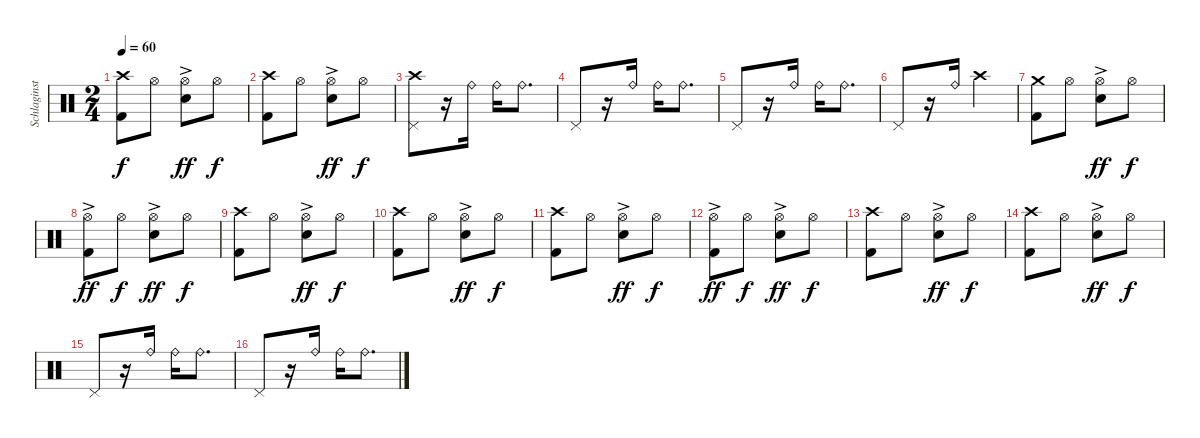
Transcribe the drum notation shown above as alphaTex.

\track ("Schlaginstrumente - Auswahl" "Schlaginst") {instrument percussion}
\staff {score}
\articulation defaults
\ts (2 4)
\tempo 60
\clef neutral
\ks c
("Crash high (hit)" "Kick (hit) 2").8{dy f} "Hi-Hat (open)".8 ("Hi-Hat (open)"{ac} "Snare (hit) 2").8{dy ff} "Hi-Hat (open)".8{dy f} |
("Crash high (hit)" "Kick (hit) 2").8 "Hi-Hat (open)".8 ("Hi-Hat (open)"{ac} "Snare (hit) 2").8{dy ff} "Hi-Hat (open)".8{dy f} |
("Pedal Hi-Hat (hit)" "Crash high (hit)").8 r.16 "Ride (bell)".16 "Ride (bell)".16 "Ride (bell)".8{d} |
"Pedal Hi-Hat (hit)".8 r.16 "Ride (bell)".16 "Ride (bell)".16 "Ride (bell)".8{d} |
"Pedal Hi-Hat (hit)".8 r.16 "Ride (bell)".16 "Ride (bell)".16 "Ride (bell)".8{d} |
"Pedal Hi-Hat (hit)".8 r.16 "Ride (bell)".16 "Crash high (hit)".4 |
("Crash medium (hit)" "Kick (hit) 2").8 "Hi-Hat (open)".8 ("Hi-Hat (open)"{ac} "Snare (hit) 2").8{dy ff} "Hi-Hat (open)".8{dy f} |
("Hi-Hat (open)"{ac} "Kick (hit) 2").8{dy ff} "Hi-Hat (open)".8{dy f} ("Hi-Hat (open)"{ac} "Snare (hit) 2").8{dy ff} "Hi-Hat (open)".8{dy f} |
("Crash high (hit)" "Kick (hit) 2").8 "Hi-Hat (open)".8 ("Hi-Hat (open)"{ac} "Snare (hit) 2").8{dy ff} "Hi-Hat (open)".8{dy f} |
("Crash high (hit)" "Kick (hit) 2").8 "Hi-Hat (open)".8 ("Hi-Hat (open)"{ac} "Snare (hit) 2").8{dy ff} "Hi-Hat (open)".8{dy f} |
("Crash high (hit)" "Kick (hit) 2").8 "Hi-Hat (open)".8 ("Hi-Hat (open)"{ac} "Snare (hit) 2").8{dy ff} "Hi-Hat (open)".8{dy f} |
("Hi-Hat (open)"{ac} "Kick (hit) 2").8{dy ff} "Hi-Hat (open)".8{dy f} ("Hi-Hat (open)"{ac} "Snare (hit) 2").8{dy ff} "Hi-Hat (open)".8{dy f} |
("Crash high (hit)" "Kick (hit) 2").8 "Hi-Hat (open)".8 ("Hi-Hat (open)"{ac} "Snare (hit) 2").8{dy ff} "Hi-Hat (open)".8{dy f} |
("Crash high (hit)" "Kick (hit) 2").8 "Hi-Hat (open)".8 ("Hi-Hat (open)"{ac} "Snare (hit) 2").8{dy ff} "Hi-Hat (open)".8{dy f} |
"Pedal Hi-Hat (hit)".8 r.16 "Ride (bell)".16 "Ride (bell)".16 "Ride (bell)".8{d} |
"Pedal Hi-Hat (hit)".8 r.16 "Ride (bell)".16 "Ride (bell)".16 "Ride (bell)".8{d}
